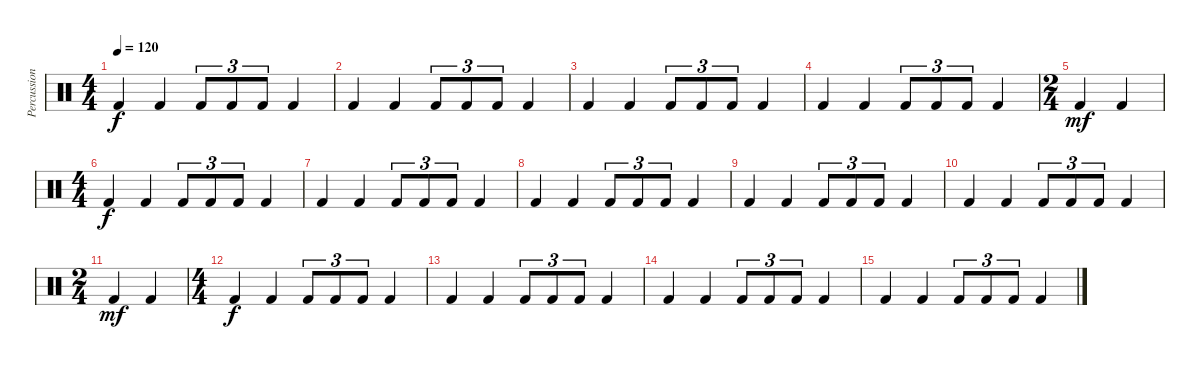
\track ("Percussion" "Percussion") {instrument percussion}
\staff {score}
\articulation defaults
\ts (4 4)
\tempo 120
\clef neutral
\ks c "Kick (hit) 2".4{dy f} "Kick (hit) 2".4 "Kick (hit) 2".8{tu (3 2)} "Kick (hit) 2".8{tu (3 2)} "Kick (hit) 2".8{tu (3 2)} "Kick (hit) 2".4
|
"Kick (hit) 2".4 "Kick (hit) 2".4 "Kick (hit) 2".8{tu (3 2)} "Kick (hit) 2".8{tu (3 2)} "Kick (hit) 2".8{tu (3 2)} "Kick (hit) 2".4 |
"Kick (hit) 2".4 "Kick (hit) 2".4 "Kick (hit) 2".8{tu (3 2)} "Kick (hit) 2".8{tu (3 2)} "Kick (hit) 2".8{tu (3 2)} "Kick (hit) 2".4 |
"Kick (hit) 2".4 "Kick (hit) 2".4 "Kick (hit) 2".8{tu (3 2)} "Kick (hit) 2".8{tu (3 2)} "Kick (hit) 2".8{tu (3 2)} "Kick (hit) 2".4 |
\ts (2 4)
"Kick (hit) 2".4{dy mf} "Kick (hit) 2".4 |
\ts (4 4)
"Kick (hit) 2".4{dy f} "Kick (hit) 2".4 "Kick (hit) 2".8{tu (3 2)} "Kick (hit) 2".8{tu (3 2)} "Kick (hit) 2".8{tu (3 2)} "Kick (hit) 2".4 |
"Kick (hit) 2".4 "Kick (hit) 2".4 "Kick (hit) 2".8{tu (3 2)} "Kick (hit) 2".8{tu (3 2)} "Kick (hit) 2".8{tu (3 2)} "Kick (hit) 2".4 |
"Kick (hit) 2".4 "Kick (hit) 2".4 "Kick (hit) 2".8{tu (3 2)} "Kick (hit) 2".8{tu (3 2)} "Kick (hit) 2".8{tu (3 2)} "Kick (hit) 2".4 |
"Kick (hit) 2".4 "Kick (hit) 2".4 "Kick (hit) 2".8{tu (3 2)} "Kick (hit) 2".8{tu (3 2)} "Kick (hit) 2".8{tu (3 2)} "Kick (hit) 2".4 |
"Kick (hit) 2".4 "Kick (hit) 2".4 "Kick (hit) 2".8{tu (3 2)} "Kick (hit) 2".8{tu (3 2)} "Kick (hit) 2".8{tu (3 2)} "Kick (hit) 2".4 |
\ts (2 4)
"Kick (hit) 2".4{dy mf} "Kick (hit) 2".4 |
\ts (4 4)
"Kick (hit) 2".4{dy f} "Kick (hit) 2".4 "Kick (hit) 2".8{tu (3 2)} "Kick (hit) 2".8{tu (3 2)} "Kick (hit) 2".8{tu (3 2)} "Kick (hit) 2".4 |
"Kick (hit) 2".4 "Kick (hit) 2".4 "Kick (hit) 2".8{tu (3 2)} "Kick (hit) 2".8{tu (3 2)} "Kick (hit) 2".8{tu (3 2)} "Kick (hit) 2".4 |
"Kick (hit) 2".4 "Kick (hit) 2".4 "Kick (hit) 2".8{tu (3 2)} "Kick (hit) 2".8{tu (3 2)} "Kick (hit) 2".8{tu (3 2)} "Kick (hit) 2".4 |
"Kick (hit) 2".4 "Kick (hit) 2".4 "Kick (hit) 2".8{tu (3 2)} "Kick (hit) 2".8{tu (3 2)} "Kick (hit) 2".8{tu (3 2)} "Kick (hit) 2".4
